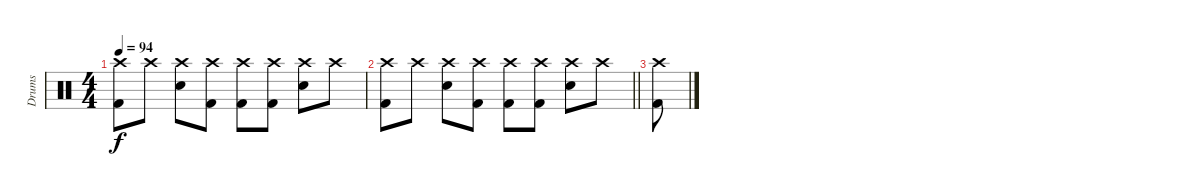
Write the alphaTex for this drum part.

\track ("Drums" "Drums") {instrument percussion}
\staff {score}
\articulation defaults
\ts (4 4)
\tempo 94
\clef neutral
\ks c
("Kick (hit) 2" "Crash high (hit)").8{dy f} "Crash high (hit)".8 ("Snare (hit) 2" "Crash high (hit)").8 ("Kick (hit) 2" "Crash high (hit)").8 ("Kick (hit) 2" "Crash high (hit)").8 ("Kick (hit) 2" "Crash high (hit)").8 ("Snare (hit) 2" "Crash high (hit)").8 "Crash high (hit)".8 |
\barLineRight lightlight
("Kick (hit) 2" "Crash high (hit)").8 "Crash high (hit)".8 ("Snare (hit) 2" "Crash high (hit)").8 ("Kick (hit) 2" "Crash high (hit)").8 ("Kick (hit) 2" "Crash high (hit)").8 ("Kick (hit) 2" "Crash high (hit)").8 ("Snare (hit) 2" "Crash high (hit)").8 "Crash high (hit)".8 |
("Kick (hit) 2" "Crash high (hit)").8
